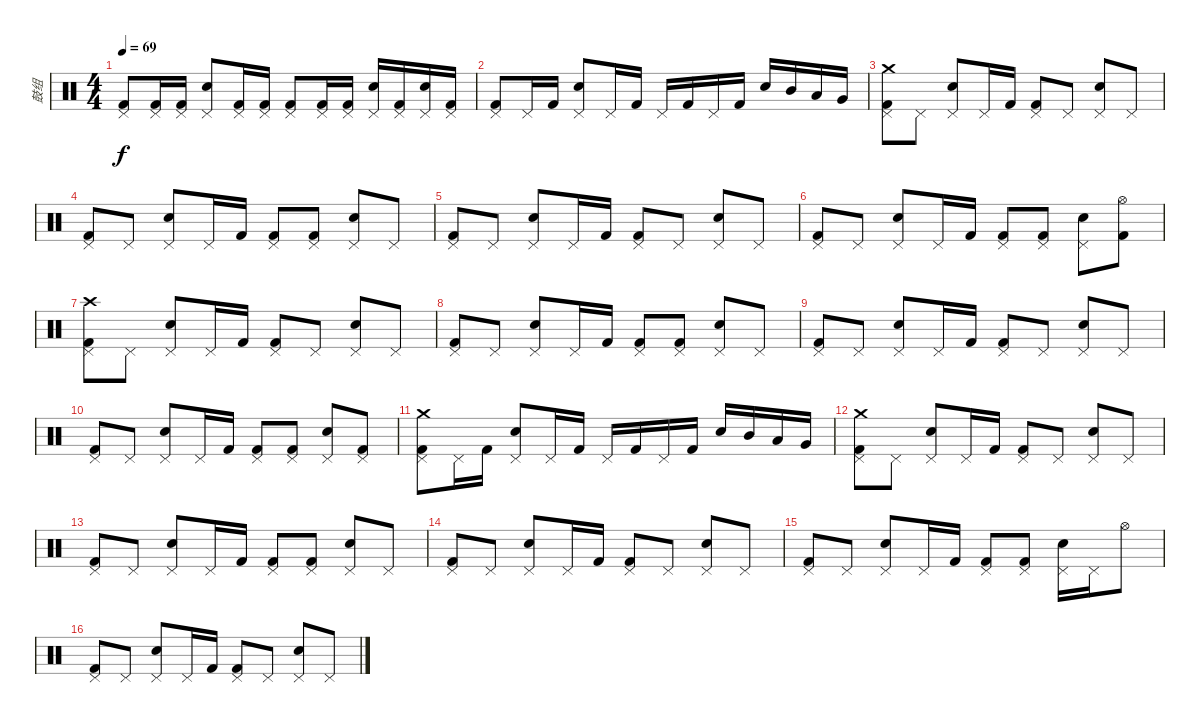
\track ("鼓组" "鼓组") {instrument percussion}
\staff {score}
\articulation defaults
\ts (4 4)
\tempo 69
\clef neutral
\ks c
("Kick (hit) 2" "Pedal Hi-Hat (hit)").8{dy f} ("Kick (hit) 2" "Pedal Hi-Hat (hit)").16 ("Kick (hit) 2" "Pedal Hi-Hat (hit)").16 ("Snare (hit) 2" "Pedal Hi-Hat (hit)").8 ("Kick (hit) 2" "Pedal Hi-Hat (hit)").16 ("Kick (hit) 2" "Pedal Hi-Hat (hit)").16 ("Kick (hit) 2" "Pedal Hi-Hat (hit)").8 ("Kick (hit) 2" "Pedal Hi-Hat (hit)").16 ("Kick (hit) 2" "Pedal Hi-Hat (hit)").16 ("Snare (hit) 2" "Pedal Hi-Hat (hit)").16 ("Kick (hit) 2" "Pedal Hi-Hat (hit)").16 ("Snare (hit) 2" "Pedal Hi-Hat (hit)").16 ("Kick (hit) 2" "Pedal Hi-Hat (hit)").16 |
("Kick (hit) 2" "Pedal Hi-Hat (hit)").8 "Pedal Hi-Hat (hit)".16 "Kick (hit) 2".16 ("Snare (hit) 2" "Pedal Hi-Hat (hit)").8 "Pedal Hi-Hat (hit)".16 "Kick (hit) 2".16 "Pedal Hi-Hat (hit)".16 "Kick (hit) 2".16 "Pedal Hi-Hat (hit)".16 "Kick (hit) 2".16 "Snare (hit) 2".16 "Mid Tom (hit)".16 "Low Tom (hit)".16 "Very Low Tom (hit)".16 |
("Crash medium (hit)" "Kick (hit) 2" "Pedal Hi-Hat (hit)").8 "Pedal Hi-Hat (hit)".8 ("Snare (hit) 2" "Pedal Hi-Hat (hit)").8 "Pedal Hi-Hat (hit)".16 "Kick (hit) 2".16 ("Kick (hit) 2" "Pedal Hi-Hat (hit)").8 "Pedal Hi-Hat (hit)".8 ("Snare (hit) 2" "Pedal Hi-Hat (hit)").8 "Pedal Hi-Hat (hit)".8 |
("Kick (hit) 2" "Pedal Hi-Hat (hit)").8 "Pedal Hi-Hat (hit)".8 ("Snare (hit) 2" "Pedal Hi-Hat (hit)").8 "Pedal Hi-Hat (hit)".16 "Kick (hit) 2".16 ("Kick (hit) 2" "Pedal Hi-Hat (hit)").8 ("Kick (hit) 2" "Pedal Hi-Hat (hit)").8 ("Snare (hit) 2" "Pedal Hi-Hat (hit)").8 "Pedal Hi-Hat (hit)".8 |
("Kick (hit) 2" "Pedal Hi-Hat (hit)").8 "Pedal Hi-Hat (hit)".8 ("Snare (hit) 2" "Pedal Hi-Hat (hit)").8 "Pedal Hi-Hat (hit)".16 "Kick (hit) 2".16 ("Kick (hit) 2" "Pedal Hi-Hat (hit)").8 "Pedal Hi-Hat (hit)".8 ("Snare (hit) 2" "Pedal Hi-Hat (hit)").8 "Pedal Hi-Hat (hit)".8 |
("Kick (hit) 2" "Pedal Hi-Hat (hit)").8 "Pedal Hi-Hat (hit)".8 ("Snare (hit) 2" "Pedal Hi-Hat (hit)").8 "Pedal Hi-Hat (hit)".16 "Kick (hit) 2".16 ("Kick (hit) 2" "Pedal Hi-Hat (hit)").8 ("Kick (hit) 2" "Pedal Hi-Hat (hit)").8 ("Snare (hit) 2" "Pedal Hi-Hat (hit)").8 ("Kick (hit) 2" "Hi-Hat (open)").8 |
("Crash high (hit)" "Kick (hit) 2" "Pedal Hi-Hat (hit)").8 "Pedal Hi-Hat (hit)".8 ("Snare (hit) 2" "Pedal Hi-Hat (hit)").8 "Pedal Hi-Hat (hit)".16 "Kick (hit) 2".16 ("Kick (hit) 2" "Pedal Hi-Hat (hit)").8 "Pedal Hi-Hat (hit)".8 ("Snare (hit) 2" "Pedal Hi-Hat (hit)").8 "Pedal Hi-Hat (hit)".8 |
("Kick (hit) 2" "Pedal Hi-Hat (hit)").8 "Pedal Hi-Hat (hit)".8 ("Snare (hit) 2" "Pedal Hi-Hat (hit)").8 "Pedal Hi-Hat (hit)".16 "Kick (hit) 2".16 ("Kick (hit) 2" "Pedal Hi-Hat (hit)").8 ("Kick (hit) 2" "Pedal Hi-Hat (hit)").8 ("Snare (hit) 2" "Pedal Hi-Hat (hit)").8 "Pedal Hi-Hat (hit)".8 |
("Kick (hit) 2" "Pedal Hi-Hat (hit)").8 "Pedal Hi-Hat (hit)".8 ("Snare (hit) 2" "Pedal Hi-Hat (hit)").8 "Pedal Hi-Hat (hit)".16 "Kick (hit) 2".16 ("Kick (hit) 2" "Pedal Hi-Hat (hit)").8 "Pedal Hi-Hat (hit)".8 ("Snare (hit) 2" "Pedal Hi-Hat (hit)").8 "Pedal Hi-Hat (hit)".8 |
("Kick (hit) 2" "Pedal Hi-Hat (hit)").8 "Pedal Hi-Hat (hit)".8 ("Snare (hit) 2" "Pedal Hi-Hat (hit)").8 "Pedal Hi-Hat (hit)".16 "Kick (hit) 2".16 ("Kick (hit) 2" "Pedal Hi-Hat (hit)").8 ("Kick (hit) 2" "Pedal Hi-Hat (hit)").8 ("Snare (hit) 2" "Pedal Hi-Hat (hit)").8 ("Kick (hit) 2" "Pedal Hi-Hat (hit)").8 |
("Crash medium (hit)" "Kick (hit) 2" "Pedal Hi-Hat (hit)").8 "Pedal Hi-Hat (hit)".16 "Kick (hit) 2".16 ("Snare (hit) 2" "Pedal Hi-Hat (hit)").8 "Pedal Hi-Hat (hit)".16 "Kick (hit) 2".16 "Pedal Hi-Hat (hit)".16 "Kick (hit) 2".16 "Pedal Hi-Hat (hit)".16 "Kick (hit) 2".16 "Snare (hit) 2".16 "Mid Tom (hit)".16 "Low Tom (hit)".16 "Very Low Tom (hit)".16 |
("Crash medium (hit)" "Kick (hit) 2" "Pedal Hi-Hat (hit)").8 "Pedal Hi-Hat (hit)".8 ("Snare (hit) 2" "Pedal Hi-Hat (hit)").8 "Pedal Hi-Hat (hit)".16 "Kick (hit) 2".16 ("Kick (hit) 2" "Pedal Hi-Hat (hit)").8 "Pedal Hi-Hat (hit)".8 ("Snare (hit) 2" "Pedal Hi-Hat (hit)").8 "Pedal Hi-Hat (hit)".8 |
("Kick (hit) 2" "Pedal Hi-Hat (hit)").8 "Pedal Hi-Hat (hit)".8 ("Snare (hit) 2" "Pedal Hi-Hat (hit)").8 "Pedal Hi-Hat (hit)".16 "Kick (hit) 2".16 ("Kick (hit) 2" "Pedal Hi-Hat (hit)").8 ("Kick (hit) 2" "Pedal Hi-Hat (hit)").8 ("Snare (hit) 2" "Pedal Hi-Hat (hit)").8 "Pedal Hi-Hat (hit)".8 |
("Kick (hit) 2" "Pedal Hi-Hat (hit)").8 "Pedal Hi-Hat (hit)".8 ("Snare (hit) 2" "Pedal Hi-Hat (hit)").8 "Pedal Hi-Hat (hit)".16 "Kick (hit) 2".16 ("Kick (hit) 2" "Pedal Hi-Hat (hit)").8 "Pedal Hi-Hat (hit)".8 ("Snare (hit) 2" "Pedal Hi-Hat (hit)").8 "Pedal Hi-Hat (hit)".8 |
("Kick (hit) 2" "Pedal Hi-Hat (hit)").8 "Pedal Hi-Hat (hit)".8 ("Snare (hit) 2" "Pedal Hi-Hat (hit)").8 "Pedal Hi-Hat (hit)".16 "Kick (hit) 2".16 ("Kick (hit) 2" "Pedal Hi-Hat (hit)").8 ("Kick (hit) 2" "Pedal Hi-Hat (hit)").8 ("Snare (hit) 2" "Pedal Hi-Hat (hit)").16 "Pedal Hi-Hat (hit)".16 "Hi-Hat (open)".8 |
("Kick (hit) 2" "Pedal Hi-Hat (hit)").8 "Pedal Hi-Hat (hit)".8 ("Snare (hit) 2" "Pedal Hi-Hat (hit)").8 "Pedal Hi-Hat (hit)".16 "Kick (hit) 2".16 ("Kick (hit) 2" "Pedal Hi-Hat (hit)").8 "Pedal Hi-Hat (hit)".8 ("Snare (hit) 2" "Pedal Hi-Hat (hit)").8 "Pedal Hi-Hat (hit)".8
